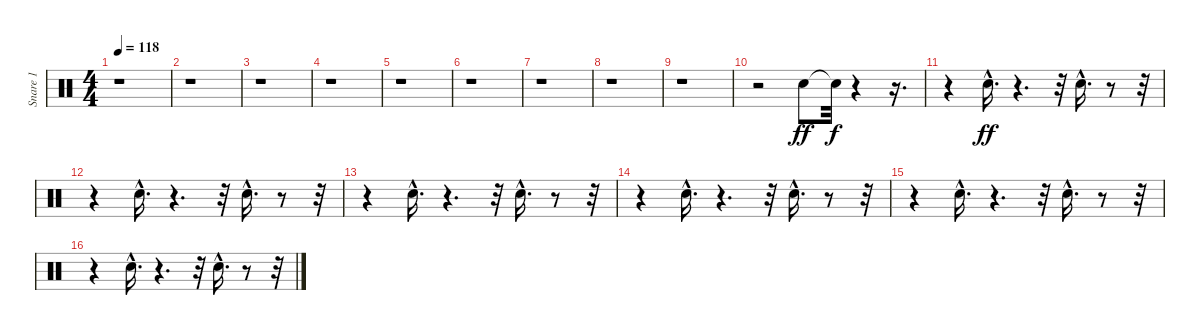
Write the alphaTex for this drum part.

\track ("Snare 1             " "Snare 1   ") {instrument percussion}
\staff {score}
\articulation defaults
\ts (4 4)
\tempo 118
\clef neutral
\ks c
r.1{dy ff} |
r.1 |
r.1 |
r.1 |
r.1 |
r.1 |
r.1 |
r.1 |
r.1 |
r.2 "Snare (hit) 2".8 "Snare (hit)"{t}.32{dy f} r.4 r.16{d} |
r.4 "Snare (hit) 2"{hac}.16{d dy ff} r.4{d} r.32 "Snare (hit) 2"{hac}.16{d} r.8 r.32 |
r.4 "Snare (hit) 2"{hac}.16{d} r.4{d} r.32 "Snare (hit) 2"{hac}.16{d} r.8 r.32 |
r.4 "Snare (hit) 2"{hac}.16{d} r.4{d} r.32 "Snare (hit) 2"{hac}.16{d} r.8 r.32 |
r.4 "Snare (hit) 2"{hac}.16{d} r.4{d} r.32 "Snare (hit) 2"{hac}.16{d} r.8 r.32 |
r.4 "Snare (hit) 2"{hac}.16{d} r.4{d} r.32 "Snare (hit) 2"{hac}.16{d} r.8 r.32 |
r.4 "Snare (hit) 2"{hac}.16{d} r.4{d} r.32 "Snare (hit) 2"{hac}.16{d} r.8 r.32
